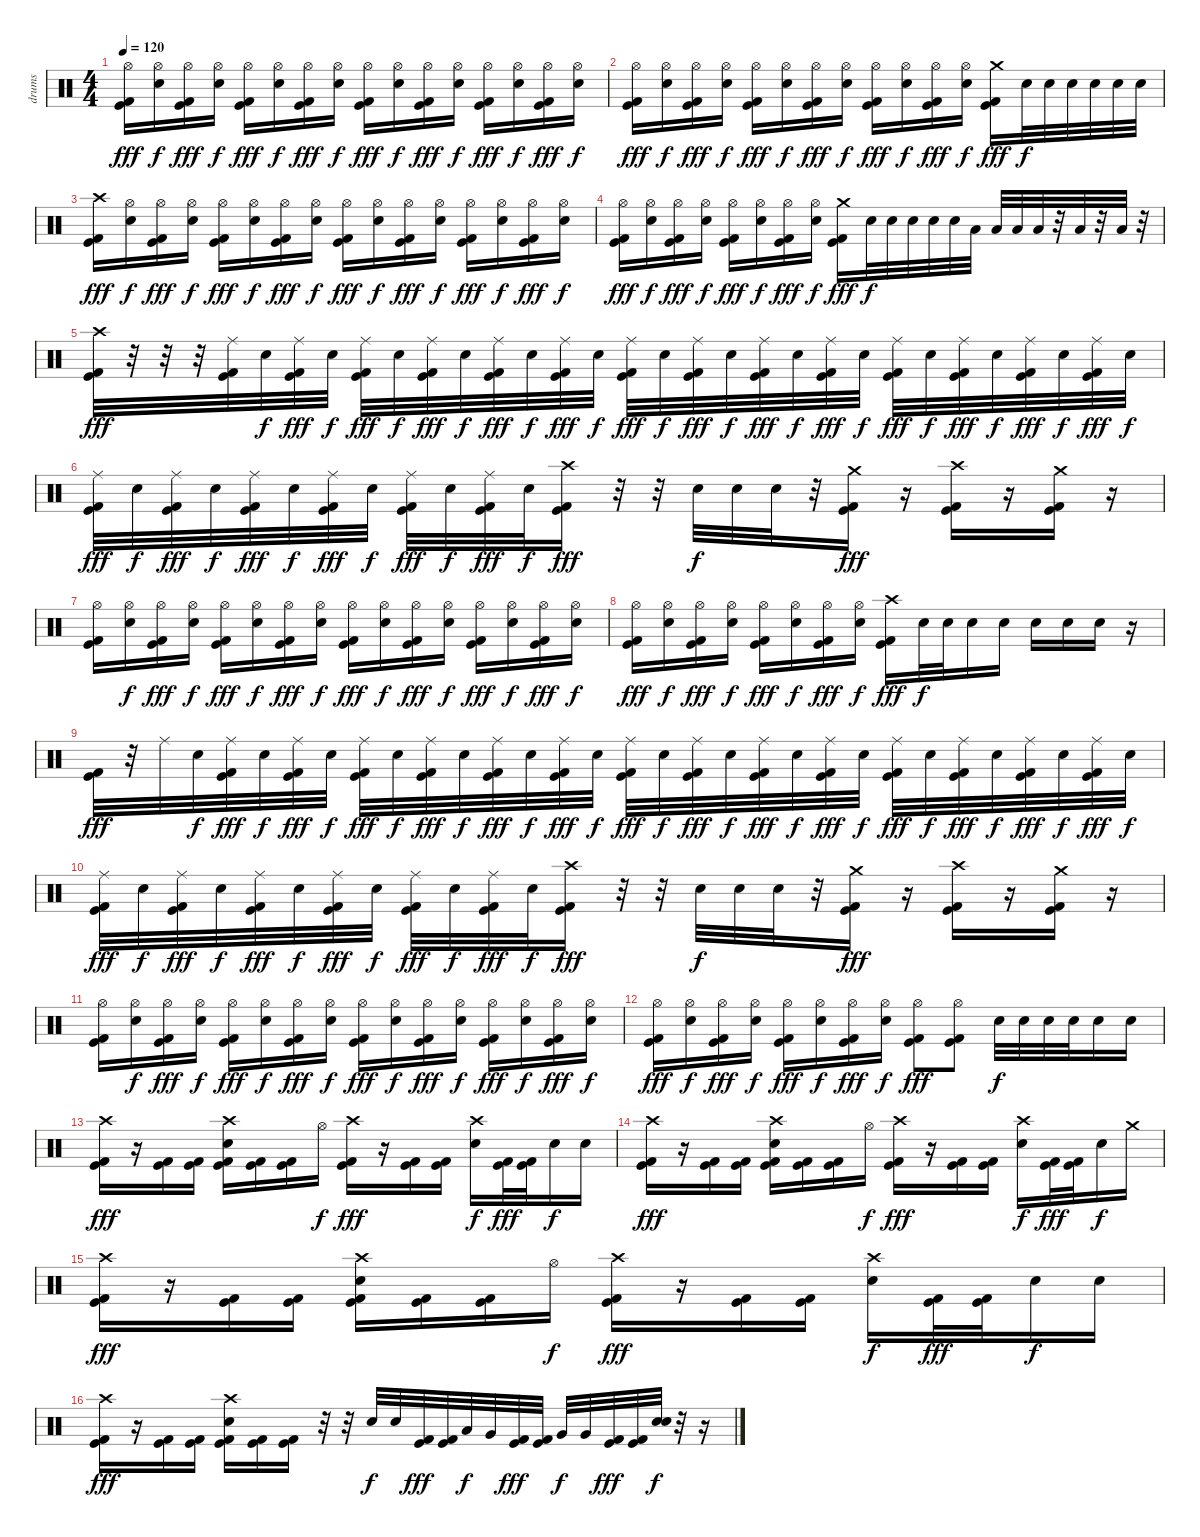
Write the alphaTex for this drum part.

\track ("drums" "drums") {instrument percussion}
\staff {score}
\articulation defaults
\ts (4 4)
\tempo 120
\clef neutral
\ks c
("Hi-Hat (open)" "Kick (hit)" "Kick (hit) 2").16{dy fff} ("Hi-Hat (open)" "Electric Snare (hit)").16{dy f} ("Hi-Hat (open)" "Kick (hit)" "Kick (hit) 2").16{dy fff} ("Hi-Hat (open)" "Electric Snare (hit)").16{dy f} ("Hi-Hat (open)" "Kick (hit)" "Kick (hit) 2").16{dy fff} ("Hi-Hat (open)" "Electric Snare (hit)").16{dy f} ("Hi-Hat (open)" "Kick (hit)" "Kick (hit) 2").16{dy fff} ("Hi-Hat (open)" "Electric Snare (hit)").16{dy f} ("Hi-Hat (open)" "Kick (hit)" "Kick (hit) 2").16{dy fff} ("Hi-Hat (open)" "Electric Snare (hit)").16{dy f} ("Hi-Hat (open)" "Kick (hit)" "Kick (hit) 2").16{dy fff} ("Hi-Hat (open)" "Electric Snare (hit)").16{dy f} ("Hi-Hat (open)" "Kick (hit)" "Kick (hit) 2").16{dy fff} ("Hi-Hat (open)" "Electric Snare (hit)").16{dy f} ("Hi-Hat (open)" "Kick (hit)" "Kick (hit) 2").16{dy fff} ("Hi-Hat (open)" "Electric Snare (hit)").16{dy f} |
("Hi-Hat (open)" "Kick (hit)" "Kick (hit) 2").16{dy fff} ("Hi-Hat (open)" "Electric Snare (hit)").16{dy f} ("Hi-Hat (open)" "Kick (hit)" "Kick (hit) 2").16{dy fff} ("Hi-Hat (open)" "Electric Snare (hit)").16{dy f} ("Hi-Hat (open)" "Kick (hit)" "Kick (hit) 2").16{dy fff} ("Hi-Hat (open)" "Electric Snare (hit)").16{dy f} ("Hi-Hat (open)" "Kick (hit)" "Kick (hit) 2").16{dy fff} ("Hi-Hat (open)" "Electric Snare (hit)").16{dy f} ("Hi-Hat (open)" "Kick (hit)" "Kick (hit) 2").16{dy fff} ("Hi-Hat (open)" "Electric Snare (hit)").16{dy f} ("Hi-Hat (open)" "Kick (hit)" "Kick (hit) 2").16{dy fff} ("Hi-Hat (open)" "Electric Snare (hit)").16{dy f} ("Crash medium (hit)" "Kick (hit)" "Kick (hit) 2").16{dy fff} "Electric Snare (hit)".32{dy f} "Electric Snare (hit)".32 "Electric Snare (hit)".32 "Electric Snare (hit)".32 "Electric Snare (hit)".32 "Electric Snare (hit)".32 |
("Crash high (hit)" "Kick (hit)" "Kick (hit) 2").16{dy fff} ("Hi-Hat (open)" "Electric Snare (hit)").16{dy f} ("Hi-Hat (open)" "Kick (hit)" "Kick (hit) 2").16{dy fff} ("Hi-Hat (open)" "Electric Snare (hit)").16{dy f} ("Hi-Hat (open)" "Kick (hit)" "Kick (hit) 2").16{dy fff} ("Hi-Hat (open)" "Electric Snare (hit)").16{dy f} ("Hi-Hat (open)" "Kick (hit)" "Kick (hit) 2").16{dy fff} ("Hi-Hat (open)" "Electric Snare (hit)").16{dy f} ("Hi-Hat (open)" "Kick (hit)" "Kick (hit) 2").16{dy fff} ("Hi-Hat (open)" "Electric Snare (hit)").16{dy f} ("Hi-Hat (open)" "Kick (hit)" "Kick (hit) 2").16{dy fff} ("Hi-Hat (open)" "Electric Snare (hit)").16{dy f} ("Hi-Hat (open)" "Kick (hit)" "Kick (hit) 2").16{dy fff} ("Hi-Hat (open)" "Electric Snare (hit)").16{dy f} ("Hi-Hat (open)" "Kick (hit)" "Kick (hit) 2").16{dy fff} ("Hi-Hat (open)" "Electric Snare (hit)").16{dy f} |
("Hi-Hat (open)" "Kick (hit)" "Kick (hit) 2").16{dy fff} ("Hi-Hat (open)" "Electric Snare (hit)").16{dy f} ("Hi-Hat (open)" "Kick (hit)" "Kick (hit) 2").16{dy fff} ("Hi-Hat (open)" "Electric Snare (hit)").16{dy f} ("Hi-Hat (open)" "Kick (hit)" "Kick (hit) 2").16{dy fff} ("Hi-Hat (open)" "Electric Snare (hit)").16{dy f} ("Hi-Hat (open)" "Kick (hit)" "Kick (hit) 2").16{dy fff} ("Hi-Hat (open)" "Electric Snare (hit)").16{dy f} ("Crash medium (hit)" "Kick (hit)" "Kick (hit) 2").16{dy fff} "Electric Snare (hit)".32{dy f} "Electric Snare (hit)".32 "Electric Snare (hit)".32 "Electric Snare (hit)".32 "Electric Snare (hit)".32 "Low Tom (hit)".32 "Low Tom (hit)".32 "Low Tom (hit)".32 "Low Tom (hit)".32 r.32 "Low Tom (hit)".32 r.32 "Low Tom (hit)".32 r.32 |
("Crash high (hit)" "Kick (hit)" "Kick (hit) 2").32{dy fff} r.32 r.32 r.32 ("Ride (middle)" "Kick (hit)" "Kick (hit) 2").32 "Electric Snare (hit)".32{dy f} ("Ride (middle)" "Kick (hit)" "Kick (hit) 2").32{dy fff} "Electric Snare (hit)".32{dy f} ("Ride (middle)" "Kick (hit)" "Kick (hit) 2").32{dy fff} "Electric Snare (hit)".32{dy f} ("Ride (middle)" "Kick (hit)" "Kick (hit) 2").32{dy fff} "Electric Snare (hit)".32{dy f} ("Ride (middle)" "Kick (hit)" "Kick (hit) 2").32{dy fff} "Electric Snare (hit)".32{dy f} ("Ride (middle)" "Kick (hit)" "Kick (hit) 2").32{dy fff} "Electric Snare (hit)".32{dy f} ("Ride (middle)" "Kick (hit)" "Kick (hit) 2").32{dy fff} "Electric Snare (hit)".32{dy f} ("Ride (middle)" "Kick (hit)" "Kick (hit) 2").32{dy fff} "Electric Snare (hit)".32{dy f} ("Ride (middle)" "Kick (hit)" "Kick (hit) 2").32{dy fff} "Electric Snare (hit)".32{dy f} ("Ride (middle)" "Kick (hit)" "Kick (hit) 2").32{dy fff} "Electric Snare (hit)".32{dy f} ("Ride (middle)" "Kick (hit)" "Kick (hit) 2").32{dy fff} "Electric Snare (hit)".32{dy f} ("Ride (middle)" "Kick (hit)" "Kick (hit) 2").32{dy fff} "Electric Snare (hit)".32{dy f} ("Ride (middle)" "Kick (hit)" "Kick (hit) 2").32{dy fff} "Electric Snare (hit)".32{dy f} ("Ride (middle)" "Kick (hit)" "Kick (hit) 2").32{dy fff} "Electric Snare (hit)".32{dy f} |
("Ride (middle)" "Kick (hit)" "Kick (hit) 2").32{dy fff} "Electric Snare (hit)".32{dy f} ("Ride (middle)" "Kick (hit)" "Kick (hit) 2").32{dy fff} "Electric Snare (hit)".32{dy f} ("Ride (middle)" "Kick (hit)" "Kick (hit) 2").32{dy fff} "Electric Snare (hit)".32{dy f} ("Ride (middle)" "Kick (hit)" "Kick (hit) 2").32{dy fff} "Electric Snare (hit)".32{dy f} ("Ride (middle)" "Kick (hit)" "Kick (hit) 2").32{dy fff} "Electric Snare (hit)".32{dy f} ("Ride (middle)" "Kick (hit)" "Kick (hit) 2").32{dy fff} "Electric Snare (hit)".32{dy f} ("Crash high (hit)" "Kick (hit)" "Kick (hit) 2").16{dy fff} r.32 r.32 "Electric Snare (hit)".32{dy f} "Electric Snare (hit)".32 "Electric Snare (hit)".32 r.32 ("Crash medium (hit)" "Kick (hit)" "Kick (hit) 2").16{dy fff} r.16 ("Crash high (hit)" "Kick (hit)" "Kick (hit) 2").16 r.16 ("Crash medium (hit)" "Kick (hit)" "Kick (hit) 2").16 r.16 |
("Hi-Hat (open)" "Kick (hit)" "Kick (hit) 2").16 ("Hi-Hat (open)" "Electric Snare (hit)").16{dy f} ("Hi-Hat (open)" "Kick (hit)" "Kick (hit) 2").16{dy fff} ("Hi-Hat (open)" "Electric Snare (hit)").16{dy f} ("Hi-Hat (open)" "Kick (hit)" "Kick (hit) 2").16{dy fff} ("Hi-Hat (open)" "Electric Snare (hit)").16{dy f} ("Hi-Hat (open)" "Kick (hit)" "Kick (hit) 2").16{dy fff} ("Hi-Hat (open)" "Electric Snare (hit)").16{dy f} ("Hi-Hat (open)" "Kick (hit)" "Kick (hit) 2").16{dy fff} ("Hi-Hat (open)" "Electric Snare (hit)").16{dy f} ("Hi-Hat (open)" "Kick (hit)" "Kick (hit) 2").16{dy fff} ("Hi-Hat (open)" "Electric Snare (hit)").16{dy f} ("Hi-Hat (open)" "Kick (hit)" "Kick (hit) 2").16{dy fff} ("Hi-Hat (open)" "Electric Snare (hit)").16{dy f} ("Hi-Hat (open)" "Kick (hit)" "Kick (hit) 2").16{dy fff} ("Hi-Hat (open)" "Electric Snare (hit)").16{dy f} |
("Hi-Hat (open)" "Kick (hit)" "Kick (hit) 2").16{dy fff} ("Hi-Hat (open)" "Electric Snare (hit)").16{dy f} ("Hi-Hat (open)" "Kick (hit)" "Kick (hit) 2").16{dy fff} ("Hi-Hat (open)" "Electric Snare (hit)").16{dy f} ("Hi-Hat (open)" "Kick (hit)" "Kick (hit) 2").16{dy fff} ("Hi-Hat (open)" "Electric Snare (hit)").16{dy f} ("Hi-Hat (open)" "Kick (hit)" "Kick (hit) 2").16{dy fff} ("Hi-Hat (open)" "Electric Snare (hit)").16{dy f} ("Crash high (hit)" "Kick (hit)" "Kick (hit) 2").16{dy fff} "Electric Snare (hit)".32{dy f} "Electric Snare (hit)".32 "Electric Snare (hit)".16 "Electric Snare (hit)".16 "Electric Snare (hit)".16 "Electric Snare (hit)".16 "Electric Snare (hit)".16 r.16 |
("Kick (hit)" "Kick (hit) 2").32{dy fff} r.32 "Ride (middle)".32 "Electric Snare (hit)".32{dy f} ("Ride (middle)" "Kick (hit)" "Kick (hit) 2").32{dy fff} "Electric Snare (hit)".32{dy f} ("Ride (middle)" "Kick (hit)" "Kick (hit) 2").32{dy fff} "Electric Snare (hit)".32{dy f} ("Ride (middle)" "Kick (hit)" "Kick (hit) 2").32{dy fff} "Electric Snare (hit)".32{dy f} ("Ride (middle)" "Kick (hit)" "Kick (hit) 2").32{dy fff} "Electric Snare (hit)".32{dy f} ("Ride (middle)" "Kick (hit)" "Kick (hit) 2").32{dy fff} "Electric Snare (hit)".32{dy f} ("Ride (middle)" "Kick (hit)" "Kick (hit) 2").32{dy fff} "Electric Snare (hit)".32{dy f} ("Ride (middle)" "Kick (hit)" "Kick (hit) 2").32{dy fff} "Electric Snare (hit)".32{dy f} ("Ride (middle)" "Kick (hit)" "Kick (hit) 2").32{dy fff} "Electric Snare (hit)".32{dy f} ("Ride (middle)" "Kick (hit)" "Kick (hit) 2").32{dy fff} "Electric Snare (hit)".32{dy f} ("Ride (middle)" "Kick (hit)" "Kick (hit) 2").32{dy fff} "Electric Snare (hit)".32{dy f} ("Ride (middle)" "Kick (hit)" "Kick (hit) 2").32{dy fff} "Electric Snare (hit)".32{dy f} ("Ride (middle)" "Kick (hit)" "Kick (hit) 2").32{dy fff} "Electric Snare (hit)".32{dy f} ("Ride (middle)" "Kick (hit)" "Kick (hit) 2").32{dy fff} "Electric Snare (hit)".32{dy f} ("Ride (middle)" "Kick (hit)" "Kick (hit) 2").32{dy fff} "Electric Snare (hit)".32{dy f} |
("Ride (middle)" "Kick (hit)" "Kick (hit) 2").32{dy fff} "Electric Snare (hit)".32{dy f} ("Ride (middle)" "Kick (hit)" "Kick (hit) 2").32{dy fff} "Electric Snare (hit)".32{dy f} ("Ride (middle)" "Kick (hit)" "Kick (hit) 2").32{dy fff} "Electric Snare (hit)".32{dy f} ("Ride (middle)" "Kick (hit)" "Kick (hit) 2").32{dy fff} "Electric Snare (hit)".32{dy f} ("Ride (middle)" "Kick (hit)" "Kick (hit) 2").32{dy fff} "Electric Snare (hit)".32{dy f} ("Ride (middle)" "Kick (hit)" "Kick (hit) 2").32{dy fff} "Electric Snare (hit)".32{dy f} ("Crash high (hit)" "Kick (hit)" "Kick (hit) 2").16{dy fff} r.32 r.32 "Electric Snare (hit)".32{dy f} "Electric Snare (hit)".32 "Electric Snare (hit)".32 r.32 ("Crash medium (hit)" "Kick (hit)" "Kick (hit) 2").16{dy fff} r.16 ("Crash high (hit)" "Kick (hit)" "Kick (hit) 2").16 r.16 ("Crash medium (hit)" "Kick (hit)" "Kick (hit) 2").16 r.16 |
("Hi-Hat (open)" "Kick (hit)" "Kick (hit) 2").16 ("Hi-Hat (open)" "Electric Snare (hit)").16{dy f} ("Hi-Hat (open)" "Kick (hit)" "Kick (hit) 2").16{dy fff} ("Hi-Hat (open)" "Electric Snare (hit)").16{dy f} ("Hi-Hat (open)" "Kick (hit)" "Kick (hit) 2").16{dy fff} ("Hi-Hat (open)" "Electric Snare (hit)").16{dy f} ("Hi-Hat (open)" "Kick (hit)" "Kick (hit) 2").16{dy fff} ("Hi-Hat (open)" "Electric Snare (hit)").16{dy f} ("Hi-Hat (open)" "Kick (hit)" "Kick (hit) 2").16{dy fff} ("Hi-Hat (open)" "Electric Snare (hit)").16{dy f} ("Hi-Hat (open)" "Kick (hit)" "Kick (hit) 2").16{dy fff} ("Hi-Hat (open)" "Electric Snare (hit)").16{dy f} ("Hi-Hat (open)" "Kick (hit)" "Kick (hit) 2").16{dy fff} ("Hi-Hat (open)" "Electric Snare (hit)").16{dy f} ("Hi-Hat (open)" "Kick (hit)" "Kick (hit) 2").16{dy fff} ("Hi-Hat (open)" "Electric Snare (hit)").16{dy f} |
("Hi-Hat (open)" "Kick (hit)" "Kick (hit) 2").16{dy fff} ("Hi-Hat (open)" "Electric Snare (hit)").16{dy f} ("Hi-Hat (open)" "Kick (hit)" "Kick (hit) 2").16{dy fff} ("Hi-Hat (open)" "Electric Snare (hit)").16{dy f} ("Hi-Hat (open)" "Kick (hit)" "Kick (hit) 2").16{dy fff} ("Hi-Hat (open)" "Electric Snare (hit)").16{dy f} ("Hi-Hat (open)" "Kick (hit)" "Kick (hit) 2").16{dy fff} ("Hi-Hat (open)" "Electric Snare (hit)").16{dy f} ("Hi-Hat (open)" "Kick (hit)" "Kick (hit) 2").8{dy fff} ("Hi-Hat (open)" "Kick (hit)" "Kick (hit) 2").8 "Electric Snare (hit)".32{dy f} "Electric Snare (hit)".32 "Electric Snare (hit)".32 "Electric Snare (hit)".32 "Electric Snare (hit)".16 "Electric Snare (hit)".16 |
("Crash high (hit)" "Kick (hit)" "Kick (hit) 2").16{dy fff} r.16 ("Kick (hit)" "Kick (hit) 2").16 ("Kick (hit)" "Kick (hit) 2").16 ("Crash high (hit)" "Electric Snare (hit)" "Kick (hit)" "Kick (hit) 2").16 ("Kick (hit)" "Kick (hit) 2").16 ("Kick (hit)" "Kick (hit) 2").16 "Hi-Hat (open)".16{dy f} ("Crash high (hit)" "Kick (hit)" "Kick (hit) 2").16{dy fff} r.16 ("Kick (hit)" "Kick (hit) 2").16 ("Kick (hit)" "Kick (hit) 2").16 ("Crash high (hit)" "Electric Snare (hit)").16{dy f} ("Kick (hit)" "Kick (hit) 2").32{dy fff} ("Kick (hit)" "Kick (hit) 2").32 "Electric Snare (hit)".16{dy f} "Electric Snare (hit)".16 |
("Crash high (hit)" "Kick (hit)" "Kick (hit) 2").16{dy fff} r.16 ("Kick (hit)" "Kick (hit) 2").16 ("Kick (hit)" "Kick (hit) 2").16 ("Crash high (hit)" "Electric Snare (hit)" "Kick (hit)" "Kick (hit) 2").16 ("Kick (hit)" "Kick (hit) 2").16 ("Kick (hit)" "Kick (hit) 2").16 "Hi-Hat (open)".16{dy f} ("Crash high (hit)" "Kick (hit)" "Kick (hit) 2").16{dy fff} r.16 ("Kick (hit)" "Kick (hit) 2").16 ("Kick (hit)" "Kick (hit) 2").16 ("Crash high (hit)" "Electric Snare (hit)").16{dy f} ("Kick (hit)" "Kick (hit) 2").32{dy fff} ("Kick (hit)" "Kick (hit) 2").32 "Electric Snare (hit)".16{dy f} "Crash medium (hit)".16 |
("Crash high (hit)" "Kick (hit)" "Kick (hit) 2").16{dy fff} r.16 ("Kick (hit)" "Kick (hit) 2").16 ("Kick (hit)" "Kick (hit) 2").16 ("Crash high (hit)" "Electric Snare (hit)" "Kick (hit)" "Kick (hit) 2").16 ("Kick (hit)" "Kick (hit) 2").16 ("Kick (hit)" "Kick (hit) 2").16 "Hi-Hat (open)".16{dy f} ("Crash high (hit)" "Kick (hit)" "Kick (hit) 2").16{dy fff} r.16 ("Kick (hit)" "Kick (hit) 2").16 ("Kick (hit)" "Kick (hit) 2").16 ("Crash high (hit)" "Electric Snare (hit)").16{dy f} ("Kick (hit)" "Kick (hit) 2").32{dy fff} ("Kick (hit)" "Kick (hit) 2").32 "Electric Snare (hit)".16{dy f} "Electric Snare (hit)".16 |
("Crash high (hit)" "Kick (hit)" "Kick (hit) 2").16{dy fff} r.16 ("Kick (hit)" "Kick (hit) 2").16 ("Kick (hit)" "Kick (hit) 2").16 ("Crash high (hit)" "Electric Snare (hit)" "Kick (hit)" "Kick (hit) 2").16 ("Kick (hit)" "Kick (hit) 2").16 ("Kick (hit)" "Kick (hit) 2").16 r.32 r.32 "Electric Snare (hit)".32{dy f} "Electric Snare (hit)".32 ("Kick (hit)" "Kick (hit) 2").32{dy fff} ("Kick (hit)" "Kick (hit) 2").32 "Low Tom (hit)".32{dy f} "Very Low Tom (hit)".32 ("Kick (hit)" "Kick (hit) 2").32{dy fff} ("Kick (hit)" "Kick (hit) 2").32 "Very Low Tom (hit)".32{dy f} "Very Low Tom (hit)".32 ("Kick (hit)" "Kick (hit) 2").32{dy fff} ("Kick (hit)" "Kick (hit) 2").32 ("Electric Snare (hit)" "Electric Snare (hit)").32{bu 60 dy f} r.32 r.16
